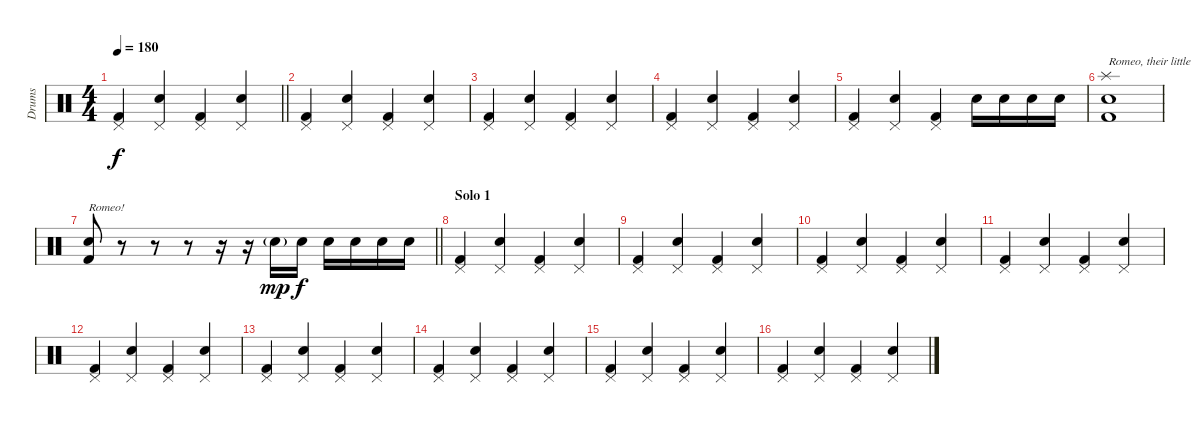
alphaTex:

\track ("Drums" "Drums") {instrument percussion}
\staff {score}
\articulation defaults
\ts (4 4)
\tempo 180
\clef neutral
\barLineRight lightlight
\ks c
("Pedal Hi-Hat (hit)" "Kick (hit) 2").4{dy f} ("Pedal Hi-Hat (hit)" "Snare (hit) 2").4 ("Pedal Hi-Hat (hit)" "Kick (hit) 2").4 ("Pedal Hi-Hat (hit)" "Snare (hit) 2").4 |
("Pedal Hi-Hat (hit)" "Kick (hit) 2").4 ("Pedal Hi-Hat (hit)" "Snare (hit) 2").4 ("Pedal Hi-Hat (hit)" "Kick (hit) 2").4 ("Pedal Hi-Hat (hit)" "Snare (hit) 2").4 |
("Pedal Hi-Hat (hit)" "Kick (hit) 2").4 ("Pedal Hi-Hat (hit)" "Snare (hit) 2").4 ("Pedal Hi-Hat (hit)" "Kick (hit) 2").4 ("Pedal Hi-Hat (hit)" "Snare (hit) 2").4 |
("Pedal Hi-Hat (hit)" "Kick (hit) 2").4 ("Pedal Hi-Hat (hit)" "Snare (hit) 2").4 ("Pedal Hi-Hat (hit)" "Kick (hit) 2").4 ("Pedal Hi-Hat (hit)" "Snare (hit) 2").4 |
("Pedal Hi-Hat (hit)" "Kick (hit) 2").4 ("Pedal Hi-Hat (hit)" "Snare (hit) 2").4 ("Pedal Hi-Hat (hit)" "Kick (hit) 2").4 "Snare (hit) 2".16 "Snare (hit) 2".16 "Snare (hit) 2".16 "Snare (hit) 2".16 |
("Splash (hit)" "Snare (hit) 2" "Kick (hit) 2").1{txt "Romeo, their little"} |
\barLineRight lightlight
("Snare (hit) 2" "Kick (hit) 2").8{txt "Romeo!"} r.8 r.8 r.8 r.16 r.16 "Snare (hit) 2"{g}.16{dy mp} "Snare (hit) 2".16{dy f} "Snare (hit) 2".16 "Snare (hit) 2".16 "Snare (hit) 2".16 "Snare (hit) 2".16 |
\section ("" "Solo 1")
("Pedal Hi-Hat (hit)" "Kick (hit) 2").4 ("Pedal Hi-Hat (hit)" "Snare (hit) 2").4 ("Pedal Hi-Hat (hit)" "Kick (hit) 2").4 ("Pedal Hi-Hat (hit)" "Snare (hit) 2").4 |
("Pedal Hi-Hat (hit)" "Kick (hit) 2").4 ("Pedal Hi-Hat (hit)" "Snare (hit) 2").4 ("Pedal Hi-Hat (hit)" "Kick (hit) 2").4 ("Pedal Hi-Hat (hit)" "Snare (hit) 2").4 |
("Pedal Hi-Hat (hit)" "Kick (hit) 2").4 ("Pedal Hi-Hat (hit)" "Snare (hit) 2").4 ("Pedal Hi-Hat (hit)" "Kick (hit) 2").4 ("Pedal Hi-Hat (hit)" "Snare (hit) 2").4 |
("Pedal Hi-Hat (hit)" "Kick (hit) 2").4 ("Pedal Hi-Hat (hit)" "Snare (hit) 2").4 ("Pedal Hi-Hat (hit)" "Kick (hit) 2").4 ("Pedal Hi-Hat (hit)" "Snare (hit) 2").4 |
("Pedal Hi-Hat (hit)" "Kick (hit) 2").4 ("Pedal Hi-Hat (hit)" "Snare (hit) 2").4 ("Pedal Hi-Hat (hit)" "Kick (hit) 2").4 ("Pedal Hi-Hat (hit)" "Snare (hit) 2").4 |
("Pedal Hi-Hat (hit)" "Kick (hit) 2").4 ("Pedal Hi-Hat (hit)" "Snare (hit) 2").4 ("Pedal Hi-Hat (hit)" "Kick (hit) 2").4 ("Pedal Hi-Hat (hit)" "Snare (hit) 2").4 |
("Pedal Hi-Hat (hit)" "Kick (hit) 2").4 ("Pedal Hi-Hat (hit)" "Snare (hit) 2").4 ("Pedal Hi-Hat (hit)" "Kick (hit) 2").4 ("Pedal Hi-Hat (hit)" "Snare (hit) 2").4 |
("Pedal Hi-Hat (hit)" "Kick (hit) 2").4 ("Pedal Hi-Hat (hit)" "Snare (hit) 2").4 ("Pedal Hi-Hat (hit)" "Kick (hit) 2").4 ("Pedal Hi-Hat (hit)" "Snare (hit) 2").4 |
("Pedal Hi-Hat (hit)" "Kick (hit) 2").4 ("Pedal Hi-Hat (hit)" "Snare (hit) 2").4 ("Pedal Hi-Hat (hit)" "Kick (hit) 2").4 ("Pedal Hi-Hat (hit)" "Snare (hit) 2").4
